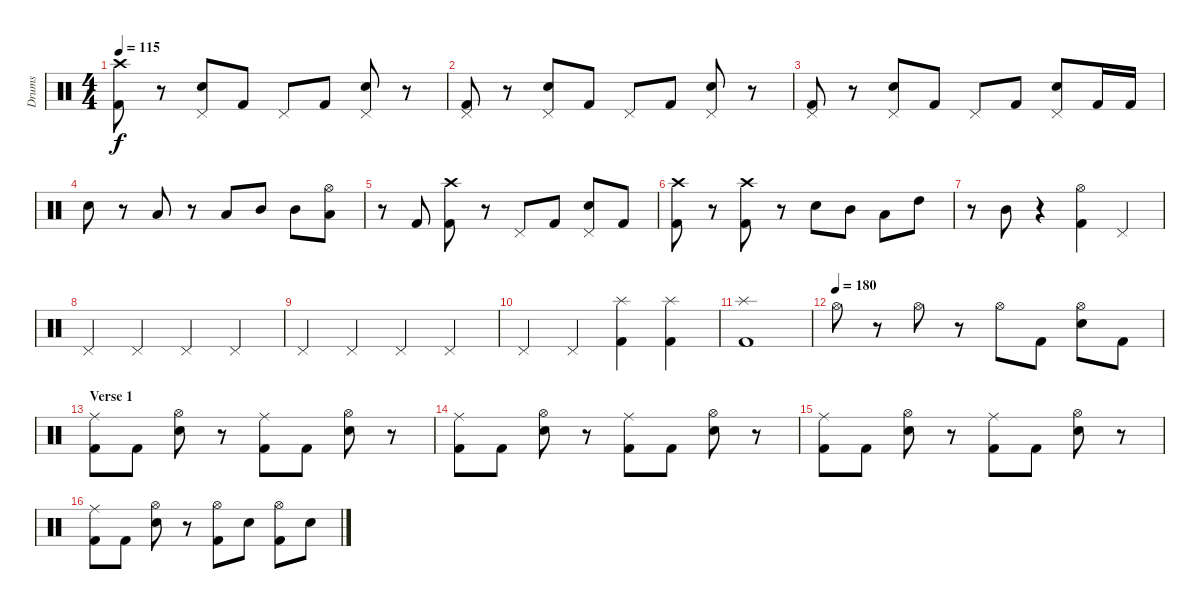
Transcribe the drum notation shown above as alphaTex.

\track ("Drums" "Drums") {instrument percussion}
\staff {score}
\articulation defaults
\ts (4 4)
\tempo 115
\clef neutral
\ks c
("Crash high (hit)" "Kick (hit) 2").8{dy f} r.8 ("Pedal Hi-Hat (hit)" "Snare (hit) 2").8 "Kick (hit) 2".8 "Pedal Hi-Hat (hit)".8 "Kick (hit) 2".8 ("Pedal Hi-Hat (hit)" "Snare (hit) 2").8 r.8 |
("Pedal Hi-Hat (hit)" "Kick (hit) 2").8 r.8 ("Pedal Hi-Hat (hit)" "Snare (hit) 2").8 "Kick (hit) 2".8 "Pedal Hi-Hat (hit)".8 "Kick (hit) 2".8 ("Pedal Hi-Hat (hit)" "Snare (hit) 2").8 r.8 |
("Pedal Hi-Hat (hit)" "Kick (hit) 2").8 r.8 ("Pedal Hi-Hat (hit)" "Snare (hit) 2").8 "Kick (hit) 2".8 "Pedal Hi-Hat (hit)".8 "Kick (hit) 2".8 ("Pedal Hi-Hat (hit)" "Snare (hit) 2").8 "Kick (hit) 2".16 "Kick (hit) 2".16 |
"Snare (hit) 2".8 r.8 "Low Tom (hit)".8 r.8 "Low Tom (hit)".8 "Mid Tom (hit)".8 "Mid Tom (hit)".8 ("Low Tom (hit)" "Hi-Hat (open)").8 |
r.8 "Kick (hit) 2".8 ("Crash high (hit)" "Kick (hit) 2").8 r.8 "Pedal Hi-Hat (hit)".8 "Kick (hit) 2".8 ("Pedal Hi-Hat (hit)" "Snare (hit) 2").8 "Kick (hit) 2".8 |
("Crash high (hit)" "Kick (hit) 2").8 r.8 ("Crash high (hit)" "Kick (hit) 2").8 r.8 "Snare (hit) 2".8 "Mid Tom (hit)".8 "Low Tom (hit)".8 "High Tom (hit)".8 |
r.8 "Mid Tom (hit)".8 r.4 ("Hi-Hat (open)" "Kick (hit) 2").4 "Pedal Hi-Hat (hit)".4 |
"Pedal Hi-Hat (hit)".4 "Pedal Hi-Hat (hit)".4 "Pedal Hi-Hat (hit)".4 "Pedal Hi-Hat (hit)".4 |
"Pedal Hi-Hat (hit)".4 "Pedal Hi-Hat (hit)".4 "Pedal Hi-Hat (hit)".4 "Pedal Hi-Hat (hit)".4 |
"Pedal Hi-Hat (hit)".4 "Pedal Hi-Hat (hit)".4 ("Splash (hit)" "Kick (hit) 2").4 ("Splash (hit)" "Kick (hit) 2").4 |
("Splash (hit)" "Kick (hit) 2").1 |
\tempo (180)
"Hi-Hat (open)".8 r.8 "Hi-Hat (open)".8 r.8 "Hi-Hat (open)".8 "Kick (hit) 2".8 ("Hi-Hat (open)" "Snare (hit) 2").8 "Kick (hit) 2".8 |
\section ("" "Verse 1")
("Ride (middle)" "Kick (hit) 2").8 "Kick (hit) 2".8 ("Hi-Hat (open)" "Snare (hit) 2").8 r.8 ("Ride (middle)" "Kick (hit) 2").8 "Kick (hit) 2".8 ("Hi-Hat (open)" "Snare (hit) 2").8 r.8 |
("Ride (middle)" "Kick (hit) 2").8 "Kick (hit) 2".8 ("Hi-Hat (open)" "Snare (hit) 2").8 r.8 ("Ride (middle)" "Kick (hit) 2").8 "Kick (hit) 2".8 ("Hi-Hat (open)" "Snare (hit) 2").8 r.8 |
("Ride (middle)" "Kick (hit) 2").8 "Kick (hit) 2".8 ("Hi-Hat (open)" "Snare (hit) 2").8 r.8 ("Ride (middle)" "Kick (hit) 2").8 "Kick (hit) 2".8 ("Hi-Hat (open)" "Snare (hit) 2").8 r.8 |
("Ride (middle)" "Kick (hit) 2").8 "Kick (hit) 2".8 ("Hi-Hat (open)" "Snare (hit) 2").8 r.8 ("Hi-Hat (open)" "Kick (hit) 2").8 "Snare (hit) 2".8 ("Hi-Hat (open)" "Kick (hit) 2").8 "Snare (hit) 2".8
